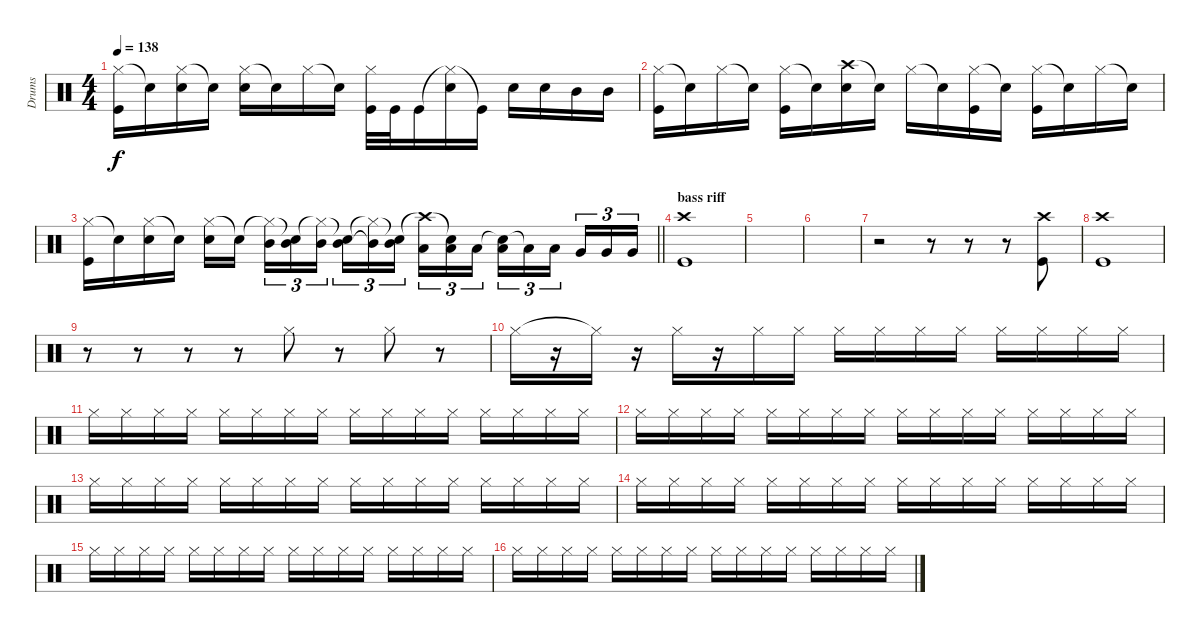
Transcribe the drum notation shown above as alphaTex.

\track ("Drums" "Drums") {instrument percussion}
\staff {score}
\articulation defaults
\ts (4 4)
\tempo 138
\clef neutral
\ks c
("Hi-Hat (closed)" "Kick (hit)").16{dy f} "Snare (hit)"{t}.16 ("Hi-Hat (closed)" "Electric Snare (hit)").16 "Snare (hit)"{t}.16 ("Hi-Hat (closed)" "Electric Snare (hit)").16 "Snare (hit)"{t}.16 "Hi-Hat (closed)".16 "Snare (hit)"{t}.16 ("Hi-Hat (closed)" "Kick (hit)").32 "Kick (hit)".32 "Kick (hit)".16 ("Hi-Hat (closed)"{t} "Electric Snare (hit)").16 "Kick (hit)"{t}.16 "Electric Snare (hit)".16 "Electric Snare (hit)".16 "Mid Tom (hit)".16 "Mid Tom (hit)".16 |
("Hi-Hat (closed)" "Kick (hit)").16 "Snare (hit)"{t}.16 "Hi-Hat (closed)".16 "Snare (hit)"{t}.16 ("Hi-Hat (closed)" "Kick (hit)").16 "Snare (hit)"{t}.16 ("Crash high (hit)" "Electric Snare (hit)").16 "Snare (hit)"{t}.16 "Hi-Hat (closed)".16 "Snare (hit)"{t}.16 ("Hi-Hat (closed)" "Kick (hit)").16 "Snare (hit)"{t}.16 ("Hi-Hat (closed)" "Kick (hit)").16 "Snare (hit)"{t}.16 "Hi-Hat (closed)".16 "Snare (hit)"{t}.16 |
\barLineRight lightlight
("Hi-Hat (closed)" "Kick (hit)").16 "Snare (hit)"{t}.16 ("Hi-Hat (closed)" "Electric Snare (hit)").16 "Snare (hit)"{t}.16 ("Hi-Hat (closed)" "Electric Snare (hit)").16 "Snare (hit)"{t}.16 ("Hi-Hat (closed)"{t} "Mid Tom (hit)").16{tu (3 2)} ("Snare (hit)"{t} "Mid Tom (hit)").16{tu (3 2)} ("Hi-Hat (closed)"{t} "Mid Tom (hit)").16{tu (3 2)} ("Snare (hit)"{t} "Mid Tom (hit)").16{tu (3 2)} ("Hi-Hat (closed)"{t} "Mid Tom (hit)"{t}).16{tu (3 2)} ("Snare (hit)"{t} "Mid Tom (hit)").16{tu (3 2)} ("Crash high (hit)"{t} "Low Tom (hit)").16{tu (3 2)} ("Snare (hit)"{t} "Low Tom (hit)").16{tu (3 2)} "Low Tom (hit)".16{tu (3 2)} ("Snare (hit)"{t} "Low Tom (hit)").16{tu (3 2)} "Low Tom (hit)"{t}.16{tu (3 2)} "Low Tom (hit)".16{tu (3 2)} "Very Low Tom (hit)".16{tu (3 2)} "Very Low Tom (hit)".16{tu (3 2)} "Very Low Tom (hit)".16{tu (3 2)} |
\section ("" "bass riff")
("Crash high (hit)" "Kick (hit)").1 |
|
|
r.2 r.8 r.8 r.8 ("Crash high (hit)" "Kick (hit)").8 |
("Crash high (hit)" "Kick (hit)").1 |
r.8 r.8 r.8 r.8 "Hi-Hat (closed)".8 r.8 "Hi-Hat (closed)".8 r.8 |
"Hi-Hat (closed)".16 r.16 "Hi-Hat (closed)"{t}.16 r.16 "Hi-Hat (closed)".16 r.16 "Hi-Hat (closed)".16 "Hi-Hat (closed)".16 "Hi-Hat (closed)".16 "Hi-Hat (closed)".16 "Hi-Hat (closed)".16 "Hi-Hat (closed)".16 "Hi-Hat (closed)".16 "Hi-Hat (closed)".16 "Hi-Hat (closed)".16 "Hi-Hat (closed)".16 |
"Hi-Hat (closed)".16 "Hi-Hat (closed)".16 "Hi-Hat (closed)".16 "Hi-Hat (closed)".16 "Hi-Hat (closed)".16 "Hi-Hat (closed)".16 "Hi-Hat (closed)".16 "Hi-Hat (closed)".16 "Hi-Hat (closed)".16 "Hi-Hat (closed)".16 "Hi-Hat (closed)".16 "Hi-Hat (closed)".16 "Hi-Hat (closed)".16 "Hi-Hat (closed)".16 "Hi-Hat (closed)".16 "Hi-Hat (closed)".16 |
"Hi-Hat (closed)".16 "Hi-Hat (closed)".16 "Hi-Hat (closed)".16 "Hi-Hat (closed)".16 "Hi-Hat (closed)".16 "Hi-Hat (closed)".16 "Hi-Hat (closed)".16 "Hi-Hat (closed)".16 "Hi-Hat (closed)".16 "Hi-Hat (closed)".16 "Hi-Hat (closed)".16 "Hi-Hat (closed)".16 "Hi-Hat (closed)".16 "Hi-Hat (closed)".16 "Hi-Hat (closed)".16 "Hi-Hat (closed)".16 |
"Hi-Hat (closed)".16 "Hi-Hat (closed)".16 "Hi-Hat (closed)".16 "Hi-Hat (closed)".16 "Hi-Hat (closed)".16 "Hi-Hat (closed)".16 "Hi-Hat (closed)".16 "Hi-Hat (closed)".16 "Hi-Hat (closed)".16 "Hi-Hat (closed)".16 "Hi-Hat (closed)".16 "Hi-Hat (closed)".16 "Hi-Hat (closed)".16 "Hi-Hat (closed)".16 "Hi-Hat (closed)".16 "Hi-Hat (closed)".16 |
"Hi-Hat (closed)".16 "Hi-Hat (closed)".16 "Hi-Hat (closed)".16 "Hi-Hat (closed)".16 "Hi-Hat (closed)".16 "Hi-Hat (closed)".16 "Hi-Hat (closed)".16 "Hi-Hat (closed)".16 "Hi-Hat (closed)".16 "Hi-Hat (closed)".16 "Hi-Hat (closed)".16 "Hi-Hat (closed)".16 "Hi-Hat (closed)".16 "Hi-Hat (closed)".16 "Hi-Hat (closed)".16 "Hi-Hat (closed)".16 |
"Hi-Hat (closed)".16 "Hi-Hat (closed)".16 "Hi-Hat (closed)".16 "Hi-Hat (closed)".16 "Hi-Hat (closed)".16 "Hi-Hat (closed)".16 "Hi-Hat (closed)".16 "Hi-Hat (closed)".16 "Hi-Hat (closed)".16 "Hi-Hat (closed)".16 "Hi-Hat (closed)".16 "Hi-Hat (closed)".16 "Hi-Hat (closed)".16 "Hi-Hat (closed)".16 "Hi-Hat (closed)".16 "Hi-Hat (closed)".16 |
"Hi-Hat (closed)".16 "Hi-Hat (closed)".16 "Hi-Hat (closed)".16 "Hi-Hat (closed)".16 "Hi-Hat (closed)".16 "Hi-Hat (closed)".16 "Hi-Hat (closed)".16 "Hi-Hat (closed)".16 "Hi-Hat (closed)".16 "Hi-Hat (closed)".16 "Hi-Hat (closed)".16 "Hi-Hat (closed)".16 "Hi-Hat (closed)".16 "Hi-Hat (closed)".16 "Hi-Hat (closed)".16 "Hi-Hat (closed)".16
